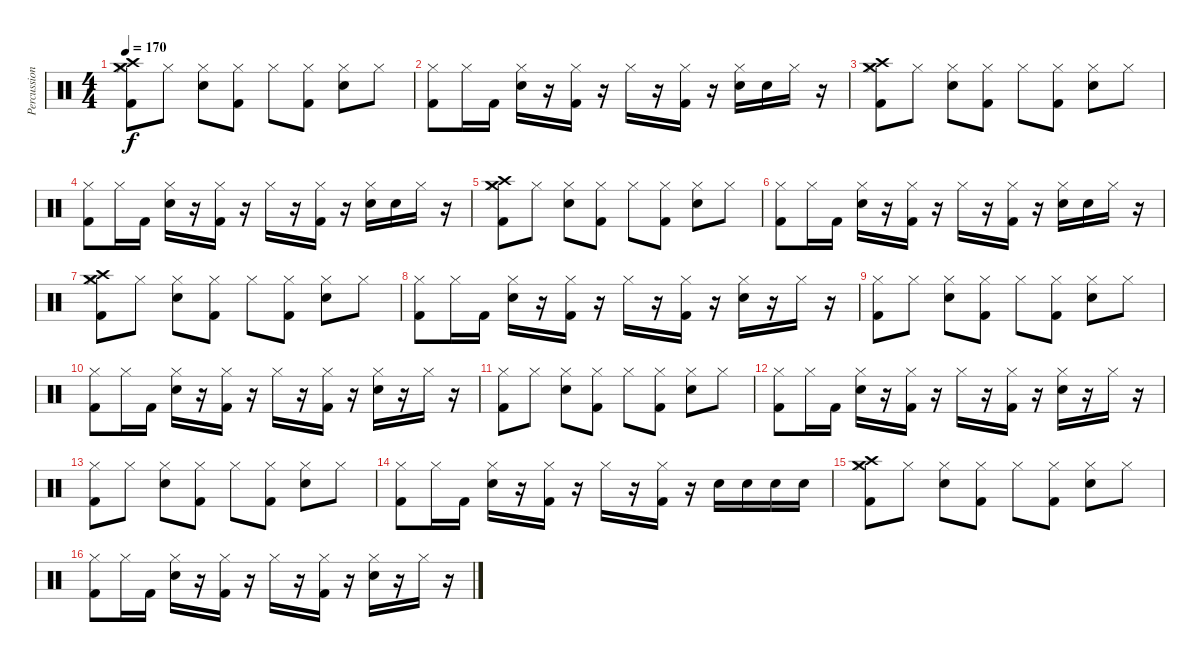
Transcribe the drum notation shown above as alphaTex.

\track ("Percussions" "Percussion") {instrument percussion}
\staff {score}
\articulation defaults
\ts (4 4)
\tempo 170
\clef neutral
\ks c
("Crash medium (hit)" "Crash high (hit)" "Hi-Hat (closed)" "Kick (hit) 2").8{dy f} "Hi-Hat (closed)".8 ("Hi-Hat (closed)" "Electric Snare (hit)").8 ("Hi-Hat (closed)" "Kick (hit) 2").8 "Hi-Hat (closed)".8 ("Hi-Hat (closed)" "Kick (hit) 2").8 ("Hi-Hat (closed)" "Electric Snare (hit)").8 "Hi-Hat (closed)".8 |
("Hi-Hat (closed)" "Kick (hit) 2").8 "Hi-Hat (closed)".16 "Kick (hit) 2".16 ("Hi-Hat (closed)" "Electric Snare (hit)").16 r.16 ("Hi-Hat (closed)" "Kick (hit) 2").16 r.16 "Hi-Hat (closed)".16 r.16 ("Hi-Hat (closed)" "Kick (hit) 2").16 r.16 ("Hi-Hat (closed)" "Electric Snare (hit)").16 "Electric Snare (hit)".16 "Hi-Hat (closed)".16 r.16 |
("Crash medium (hit)" "Crash high (hit)" "Hi-Hat (closed)" "Kick (hit) 2").8 "Hi-Hat (closed)".8 ("Hi-Hat (closed)" "Electric Snare (hit)").8 ("Hi-Hat (closed)" "Kick (hit) 2").8 "Hi-Hat (closed)".8 ("Hi-Hat (closed)" "Kick (hit) 2").8 ("Hi-Hat (closed)" "Electric Snare (hit)").8 "Hi-Hat (closed)".8 |
("Hi-Hat (closed)" "Kick (hit) 2").8 "Hi-Hat (closed)".16 "Kick (hit) 2".16 ("Hi-Hat (closed)" "Electric Snare (hit)").16 r.16 ("Hi-Hat (closed)" "Kick (hit) 2").16 r.16 "Hi-Hat (closed)".16 r.16 ("Hi-Hat (closed)" "Kick (hit) 2").16 r.16 ("Hi-Hat (closed)" "Electric Snare (hit)").16 "Electric Snare (hit)".16 "Hi-Hat (closed)".16 r.16 |
("Crash medium (hit)" "Crash high (hit)" "Hi-Hat (closed)" "Kick (hit) 2").8 "Hi-Hat (closed)".8 ("Hi-Hat (closed)" "Electric Snare (hit)").8 ("Hi-Hat (closed)" "Kick (hit) 2").8 "Hi-Hat (closed)".8 ("Hi-Hat (closed)" "Kick (hit) 2").8 ("Hi-Hat (closed)" "Electric Snare (hit)").8 "Hi-Hat (closed)".8 |
("Hi-Hat (closed)" "Kick (hit) 2").8 "Hi-Hat (closed)".16 "Kick (hit) 2".16 ("Hi-Hat (closed)" "Electric Snare (hit)").16 r.16 ("Hi-Hat (closed)" "Kick (hit) 2").16 r.16 "Hi-Hat (closed)".16 r.16 ("Hi-Hat (closed)" "Kick (hit) 2").16 r.16 ("Hi-Hat (closed)" "Electric Snare (hit)").16 "Electric Snare (hit)".16 "Hi-Hat (closed)".16 r.16 |
("Crash medium (hit)" "Crash high (hit)" "Hi-Hat (closed)" "Kick (hit) 2").8 "Hi-Hat (closed)".8 ("Hi-Hat (closed)" "Electric Snare (hit)").8 ("Hi-Hat (closed)" "Kick (hit) 2").8 "Hi-Hat (closed)".8 ("Hi-Hat (closed)" "Kick (hit) 2").8 ("Hi-Hat (closed)" "Electric Snare (hit)").8 "Hi-Hat (closed)".8 |
("Hi-Hat (closed)" "Kick (hit) 2").8 "Hi-Hat (closed)".16 "Kick (hit) 2".16 ("Hi-Hat (closed)" "Electric Snare (hit)").16 r.16 ("Hi-Hat (closed)" "Kick (hit) 2").16 r.16 "Hi-Hat (closed)".16 r.16 ("Hi-Hat (closed)" "Kick (hit) 2").16 r.16 ("Hi-Hat (closed)" "Electric Snare (hit)").16 r.16 "Hi-Hat (closed)".16 r.16 |
("Hi-Hat (closed)" "Kick (hit) 2").8 "Hi-Hat (closed)".8 ("Hi-Hat (closed)" "Electric Snare (hit)").8 ("Hi-Hat (closed)" "Kick (hit) 2").8 "Hi-Hat (closed)".8 ("Hi-Hat (closed)" "Kick (hit) 2").8 ("Hi-Hat (closed)" "Electric Snare (hit)").8 "Hi-Hat (closed)".8 |
("Hi-Hat (closed)" "Kick (hit) 2").8 "Hi-Hat (closed)".16 "Kick (hit) 2".16 ("Hi-Hat (closed)" "Electric Snare (hit)").16 r.16 ("Hi-Hat (closed)" "Kick (hit) 2").16 r.16 "Hi-Hat (closed)".16 r.16 ("Hi-Hat (closed)" "Kick (hit) 2").16 r.16 ("Hi-Hat (closed)" "Electric Snare (hit)").16 r.16 "Hi-Hat (closed)".16 r.16 |
("Hi-Hat (closed)" "Kick (hit) 2").8 "Hi-Hat (closed)".8 ("Hi-Hat (closed)" "Electric Snare (hit)").8 ("Hi-Hat (closed)" "Kick (hit) 2").8 "Hi-Hat (closed)".8 ("Hi-Hat (closed)" "Kick (hit) 2").8 ("Hi-Hat (closed)" "Electric Snare (hit)").8 "Hi-Hat (closed)".8 |
("Hi-Hat (closed)" "Kick (hit) 2").8 "Hi-Hat (closed)".16 "Kick (hit) 2".16 ("Hi-Hat (closed)" "Electric Snare (hit)").16 r.16 ("Hi-Hat (closed)" "Kick (hit) 2").16 r.16 "Hi-Hat (closed)".16 r.16 ("Hi-Hat (closed)" "Kick (hit) 2").16 r.16 ("Hi-Hat (closed)" "Electric Snare (hit)").16 r.16 "Hi-Hat (closed)".16 r.16 |
("Hi-Hat (closed)" "Kick (hit) 2").8 "Hi-Hat (closed)".8 ("Hi-Hat (closed)" "Electric Snare (hit)").8 ("Hi-Hat (closed)" "Kick (hit) 2").8 "Hi-Hat (closed)".8 ("Hi-Hat (closed)" "Kick (hit) 2").8 ("Hi-Hat (closed)" "Electric Snare (hit)").8 "Hi-Hat (closed)".8 |
("Hi-Hat (closed)" "Kick (hit) 2").8 "Hi-Hat (closed)".16 "Kick (hit) 2".16 ("Hi-Hat (closed)" "Electric Snare (hit)").16 r.16 ("Hi-Hat (closed)" "Kick (hit) 2").16 r.16 "Hi-Hat (closed)".16 r.16 ("Hi-Hat (closed)" "Kick (hit) 2").16 r.16 "Electric Snare (hit)".16 "Electric Snare (hit)".16 "Electric Snare (hit)".16 "Electric Snare (hit)".16 |
("Crash medium (hit)" "Crash high (hit)" "Hi-Hat (closed)" "Kick (hit) 2").8 "Hi-Hat (closed)".8 ("Hi-Hat (closed)" "Electric Snare (hit)").8 ("Hi-Hat (closed)" "Kick (hit) 2").8 "Hi-Hat (closed)".8 ("Hi-Hat (closed)" "Kick (hit) 2").8 ("Hi-Hat (closed)" "Electric Snare (hit)").8 "Hi-Hat (closed)".8 |
("Hi-Hat (closed)" "Kick (hit) 2").8 "Hi-Hat (closed)".16 "Kick (hit) 2".16 ("Hi-Hat (closed)" "Electric Snare (hit)").16 r.16 ("Hi-Hat (closed)" "Kick (hit) 2").16 r.16 "Hi-Hat (closed)".16 r.16 ("Hi-Hat (closed)" "Kick (hit) 2").16 r.16 ("Hi-Hat (closed)" "Electric Snare (hit)").16 r.16 "Hi-Hat (closed)".16 r.16
